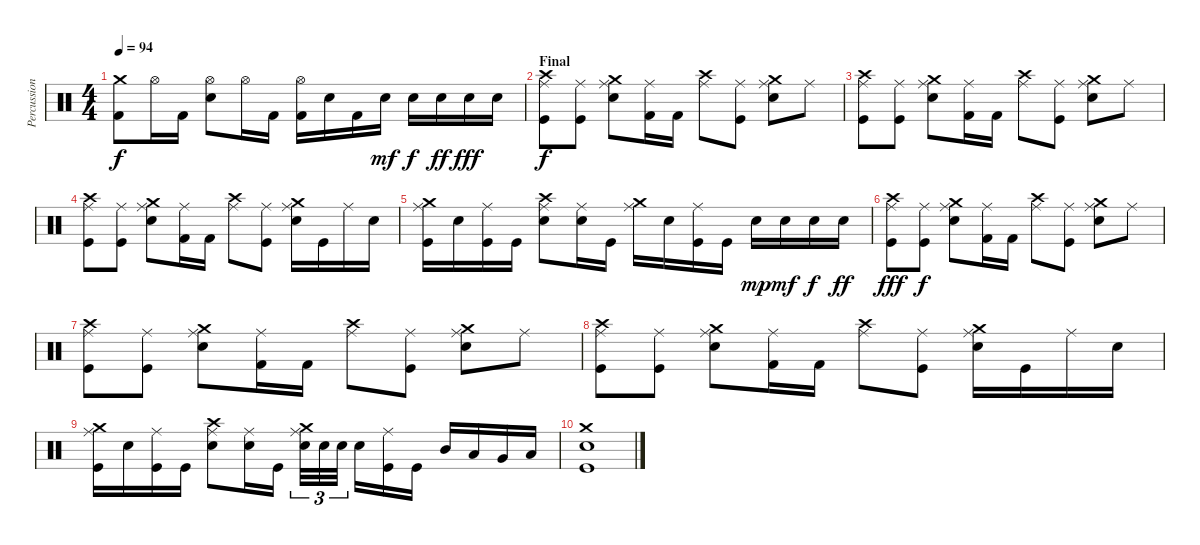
\track ("Percussions" "Percussion") {instrument percussion}
\staff {score}
\articulation defaults
\ts (4 4)
\tempo 94
\clef neutral
\ks c
("Crash medium (hit)" "Kick (hit) 2").8{dy f} "Hi-Hat (open)".16 "Kick (hit) 2".16 ("Hi-Hat (open)" "Electric Snare (hit)").8 "Hi-Hat (open)".16 "Kick (hit) 2".16 ("Hi-Hat (open)" "Kick (hit) 2").16 "Electric Snare (hit)".16 "Kick (hit) 2".16 "Electric Snare (hit)".16{dy mf} "Electric Snare (hit)".16{dy f} "Electric Snare (hit)".16{dy ff} "Electric Snare (hit)".16{dy fff} "Electric Snare (hit)".16 |
\section ("" "Final")
("Crash high (hit)" "Ride (middle)" "Kick (hit)").8{dy f volume 16} ("Ride (middle)" "Kick (hit)").8 ("Crash medium (hit)" "Ride (middle)" "Electric Snare (hit)").8 ("Ride (middle)" "Kick (hit) 2").16 "Kick (hit) 2".16 ("Crash high (hit)" "Ride (middle)").8 ("Ride (middle)" "Kick (hit)").8 ("Crash medium (hit)" "Ride (middle)" "Electric Snare (hit)").8 "Ride (middle)".8 |
("Crash high (hit)" "Ride (middle)" "Kick (hit)").8 ("Ride (middle)" "Kick (hit)").8 ("Crash medium (hit)" "Ride (middle)" "Electric Snare (hit)").8 ("Ride (middle)" "Kick (hit) 2").16 "Kick (hit) 2".16 ("Crash high (hit)" "Ride (middle)").8 ("Ride (middle)" "Kick (hit)").8 ("Crash medium (hit)" "Ride (middle)" "Electric Snare (hit)").8 "Ride (middle)".8 |
("Crash high (hit)" "Ride (middle)" "Kick (hit)").8 ("Ride (middle)" "Kick (hit)").8 ("Crash medium (hit)" "Ride (middle)" "Electric Snare (hit)").8 ("Ride (middle)" "Kick (hit) 2").16 "Kick (hit) 2".16 ("Crash high (hit)" "Ride (middle)").8 ("Ride (middle)" "Kick (hit)").8 ("Crash medium (hit)" "Ride (middle)" "Electric Snare (hit)").16 "Kick (hit)".16 "Ride (middle)".16 "Electric Snare (hit)".16 |
("Crash medium (hit)" "Ride (middle)" "Kick (hit)").16 "Electric Snare (hit)".16 ("Ride (middle)" "Kick (hit)").16 "Kick (hit)".16 ("Crash high (hit)" "Ride (middle)" "Electric Snare (hit)").8 ("Ride (middle)" "Electric Snare (hit)").16 "Kick (hit)".16 ("Crash medium (hit)" "Ride (middle)").16 "Electric Snare (hit)".16 ("Ride (middle)" "Kick (hit)").16 "Kick (hit)".16 "Electric Snare (hit)".16{dy mp} "Electric Snare (hit)".16{dy mf} "Electric Snare (hit)".16{dy f} "Electric Snare (hit)".16{dy ff} |
("Crash high (hit)" "Ride (middle)" "Kick (hit)").8{dy fff volume 16} ("Ride (middle)" "Kick (hit)").8{dy f} ("Crash medium (hit)" "Ride (middle)" "Electric Snare (hit)").8 ("Ride (middle)" "Kick (hit) 2").16 "Kick (hit) 2".16 ("Crash high (hit)" "Ride (middle)").8 ("Ride (middle)" "Kick (hit)").8 ("Crash medium (hit)" "Ride (middle)" "Electric Snare (hit)").8 "Ride (middle)".8 |
("Crash high (hit)" "Ride (middle)" "Kick (hit)").8 ("Ride (middle)" "Kick (hit)").8 ("Crash medium (hit)" "Ride (middle)" "Electric Snare (hit)").8 ("Ride (middle)" "Kick (hit) 2").16 "Kick (hit) 2".16 ("Crash high (hit)" "Ride (middle)").8 ("Ride (middle)" "Kick (hit)").8 ("Crash medium (hit)" "Ride (middle)" "Electric Snare (hit)").8 "Ride (middle)".8 |
("Crash high (hit)" "Ride (middle)" "Kick (hit)").8 ("Ride (middle)" "Kick (hit)").8 ("Crash medium (hit)" "Ride (middle)" "Electric Snare (hit)").8 ("Ride (middle)" "Kick (hit) 2").16 "Kick (hit) 2".16 ("Crash high (hit)" "Ride (middle)").8 ("Ride (middle)" "Kick (hit)").8 ("Crash medium (hit)" "Ride (middle)" "Electric Snare (hit)").16 "Kick (hit)".16 "Ride (middle)".16 "Electric Snare (hit)".16 |
("Crash medium (hit)" "Ride (middle)" "Kick (hit)").16 "Electric Snare (hit)".16 ("Ride (middle)" "Kick (hit)").16 "Kick (hit)".16 ("Crash high (hit)" "Ride (middle)" "Electric Snare (hit)").8 ("Ride (middle)" "Electric Snare (hit)").16 "Kick (hit)".16 ("Crash medium (hit)" "Ride (middle)" "Electric Snare (hit)").32{tu (3 2)} "Electric Snare (hit)".32{tu (3 2)} "Electric Snare (hit)".32{tu (3 2)} "Electric Snare (hit)".16 ("Ride (middle)" "Kick (hit)").16 "Kick (hit)".16 "Mid Tom (hit)".16 "Low Tom (hit)".16 "Very Low Tom (hit)".16 "Low Floor Tom (hit)".16 |
("Crash medium (hit)" "Electric Snare (hit)" "Kick (hit)").1
